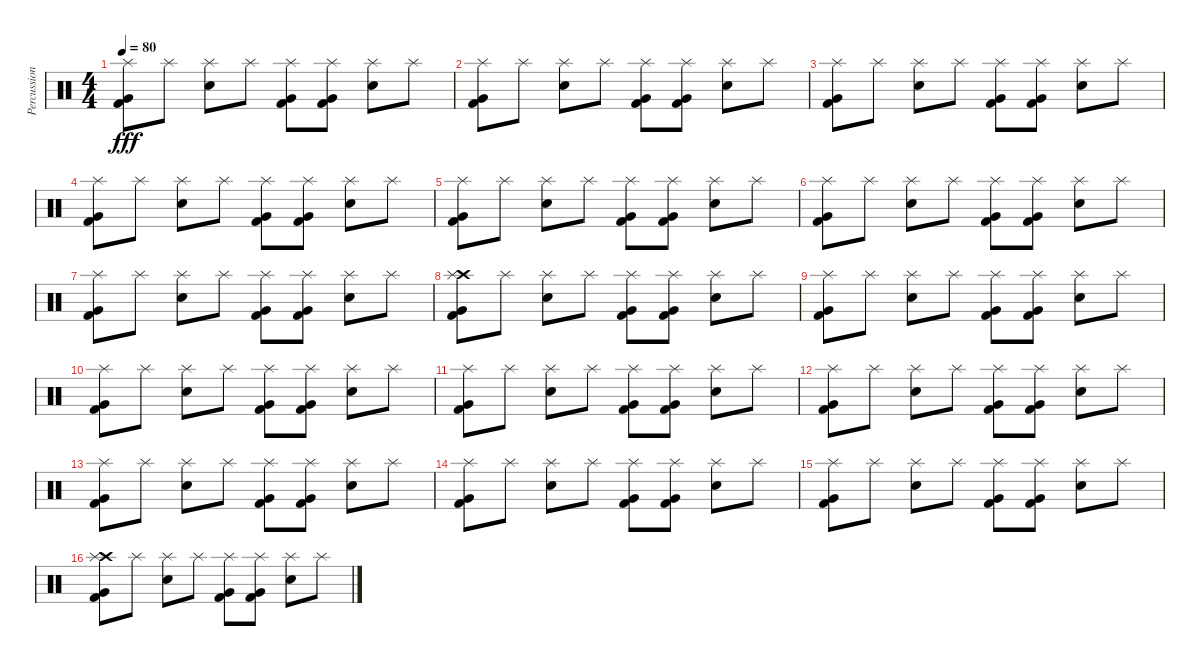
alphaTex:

\track ("Percussion" "Percussion") {instrument percussion}
\staff {score}
\articulation defaults
\ts (4 4)
\tempo 80
\clef neutral
\ks c
("Splash (hit)" "Very Low Tom (hit)" "Kick (hit) 2").8{dy fff} "Splash (hit)".8 ("Splash (hit)" "Electric Snare (hit)").8 "Splash (hit)".8 ("Splash (hit)" "Very Low Tom (hit)" "Kick (hit) 2").8 ("Splash (hit)" "Very Low Tom (hit)" "Kick (hit) 2").8 ("Splash (hit)" "Electric Snare (hit)").8 "Splash (hit)".8 |
("Splash (hit)" "Very Low Tom (hit)" "Kick (hit) 2").8 "Splash (hit)".8 ("Splash (hit)" "Electric Snare (hit)").8 "Splash (hit)".8 ("Splash (hit)" "Very Low Tom (hit)" "Kick (hit) 2").8 ("Splash (hit)" "Very Low Tom (hit)" "Kick (hit) 2").8 ("Splash (hit)" "Electric Snare (hit)").8 "Splash (hit)".8 |
("Splash (hit)" "Very Low Tom (hit)" "Kick (hit) 2").8 "Splash (hit)".8 ("Splash (hit)" "Electric Snare (hit)").8 "Splash (hit)".8 ("Splash (hit)" "Very Low Tom (hit)" "Kick (hit) 2").8 ("Splash (hit)" "Very Low Tom (hit)" "Kick (hit) 2").8 ("Splash (hit)" "Electric Snare (hit)").8 "Splash (hit)".8 |
("Splash (hit)" "Very Low Tom (hit)" "Kick (hit) 2").8 "Splash (hit)".8 ("Splash (hit)" "Electric Snare (hit)").8 "Splash (hit)".8 ("Splash (hit)" "Very Low Tom (hit)" "Kick (hit) 2").8 ("Splash (hit)" "Very Low Tom (hit)" "Kick (hit) 2").8 ("Splash (hit)" "Electric Snare (hit)").8 "Splash (hit)".8 |
("Splash (hit)" "Very Low Tom (hit)" "Kick (hit) 2").8 "Splash (hit)".8 ("Splash (hit)" "Electric Snare (hit)").8 "Splash (hit)".8 ("Splash (hit)" "Very Low Tom (hit)" "Kick (hit) 2").8 ("Splash (hit)" "Very Low Tom (hit)" "Kick (hit) 2").8 ("Splash (hit)" "Electric Snare (hit)").8 "Splash (hit)".8 |
("Splash (hit)" "Very Low Tom (hit)" "Kick (hit) 2").8 "Splash (hit)".8 ("Splash (hit)" "Electric Snare (hit)").8 "Splash (hit)".8 ("Splash (hit)" "Very Low Tom (hit)" "Kick (hit) 2").8 ("Splash (hit)" "Very Low Tom (hit)" "Kick (hit) 2").8 ("Splash (hit)" "Electric Snare (hit)").8 "Splash (hit)".8 |
("Splash (hit)" "Very Low Tom (hit)" "Kick (hit) 2").8 "Splash (hit)".8 ("Splash (hit)" "Electric Snare (hit)").8 "Splash (hit)".8 ("Splash (hit)" "Very Low Tom (hit)" "Kick (hit) 2").8 ("Splash (hit)" "Very Low Tom (hit)" "Kick (hit) 2").8 ("Splash (hit)" "Electric Snare (hit)").8 "Splash (hit)".8 |
("Crash high (hit)" "Splash (hit)" "Very Low Tom (hit)" "Kick (hit) 2").8 "Splash (hit)".8 ("Splash (hit)" "Electric Snare (hit)").8 "Splash (hit)".8 ("Splash (hit)" "Very Low Tom (hit)" "Kick (hit) 2").8 ("Splash (hit)" "Very Low Tom (hit)" "Kick (hit) 2").8 ("Splash (hit)" "Electric Snare (hit)").8 "Splash (hit)".8 |
("Splash (hit)" "Very Low Tom (hit)" "Kick (hit) 2").8 "Splash (hit)".8 ("Splash (hit)" "Electric Snare (hit)").8 "Splash (hit)".8 ("Splash (hit)" "Very Low Tom (hit)" "Kick (hit) 2").8 ("Splash (hit)" "Very Low Tom (hit)" "Kick (hit) 2").8 ("Splash (hit)" "Electric Snare (hit)").8 "Splash (hit)".8 |
("Splash (hit)" "Very Low Tom (hit)" "Kick (hit) 2").8 "Splash (hit)".8 ("Splash (hit)" "Electric Snare (hit)").8 "Splash (hit)".8 ("Splash (hit)" "Very Low Tom (hit)" "Kick (hit) 2").8 ("Splash (hit)" "Very Low Tom (hit)" "Kick (hit) 2").8 ("Splash (hit)" "Electric Snare (hit)").8 "Splash (hit)".8 |
("Splash (hit)" "Very Low Tom (hit)" "Kick (hit) 2").8 "Splash (hit)".8 ("Splash (hit)" "Electric Snare (hit)").8 "Splash (hit)".8 ("Splash (hit)" "Very Low Tom (hit)" "Kick (hit) 2").8 ("Splash (hit)" "Very Low Tom (hit)" "Kick (hit) 2").8 ("Splash (hit)" "Electric Snare (hit)").8 "Splash (hit)".8 |
("Splash (hit)" "Very Low Tom (hit)" "Kick (hit) 2").8 "Splash (hit)".8 ("Splash (hit)" "Electric Snare (hit)").8 "Splash (hit)".8 ("Splash (hit)" "Very Low Tom (hit)" "Kick (hit) 2").8 ("Splash (hit)" "Very Low Tom (hit)" "Kick (hit) 2").8 ("Splash (hit)" "Electric Snare (hit)").8 "Splash (hit)".8 |
("Splash (hit)" "Very Low Tom (hit)" "Kick (hit) 2").8 "Splash (hit)".8 ("Splash (hit)" "Electric Snare (hit)").8 "Splash (hit)".8 ("Splash (hit)" "Very Low Tom (hit)" "Kick (hit) 2").8 ("Splash (hit)" "Very Low Tom (hit)" "Kick (hit) 2").8 ("Splash (hit)" "Electric Snare (hit)").8 "Splash (hit)".8 |
("Splash (hit)" "Very Low Tom (hit)" "Kick (hit) 2").8 "Splash (hit)".8 ("Splash (hit)" "Electric Snare (hit)").8 "Splash (hit)".8 ("Splash (hit)" "Very Low Tom (hit)" "Kick (hit) 2").8 ("Splash (hit)" "Very Low Tom (hit)" "Kick (hit) 2").8 ("Splash (hit)" "Electric Snare (hit)").8 "Splash (hit)".8 |
("Splash (hit)" "Very Low Tom (hit)" "Kick (hit) 2").8 "Splash (hit)".8 ("Splash (hit)" "Electric Snare (hit)").8 "Splash (hit)".8 ("Splash (hit)" "Very Low Tom (hit)" "Kick (hit) 2").8 ("Splash (hit)" "Very Low Tom (hit)" "Kick (hit) 2").8 ("Splash (hit)" "Electric Snare (hit)").8 "Splash (hit)".8 |
("Crash high (hit)" "Splash (hit)" "Very Low Tom (hit)" "Kick (hit) 2").8 "Splash (hit)".8 ("Splash (hit)" "Electric Snare (hit)").8 "Splash (hit)".8 ("Splash (hit)" "Very Low Tom (hit)" "Kick (hit) 2").8 ("Splash (hit)" "Very Low Tom (hit)" "Kick (hit) 2").8 ("Splash (hit)" "Electric Snare (hit)").8 "Splash (hit)".8
